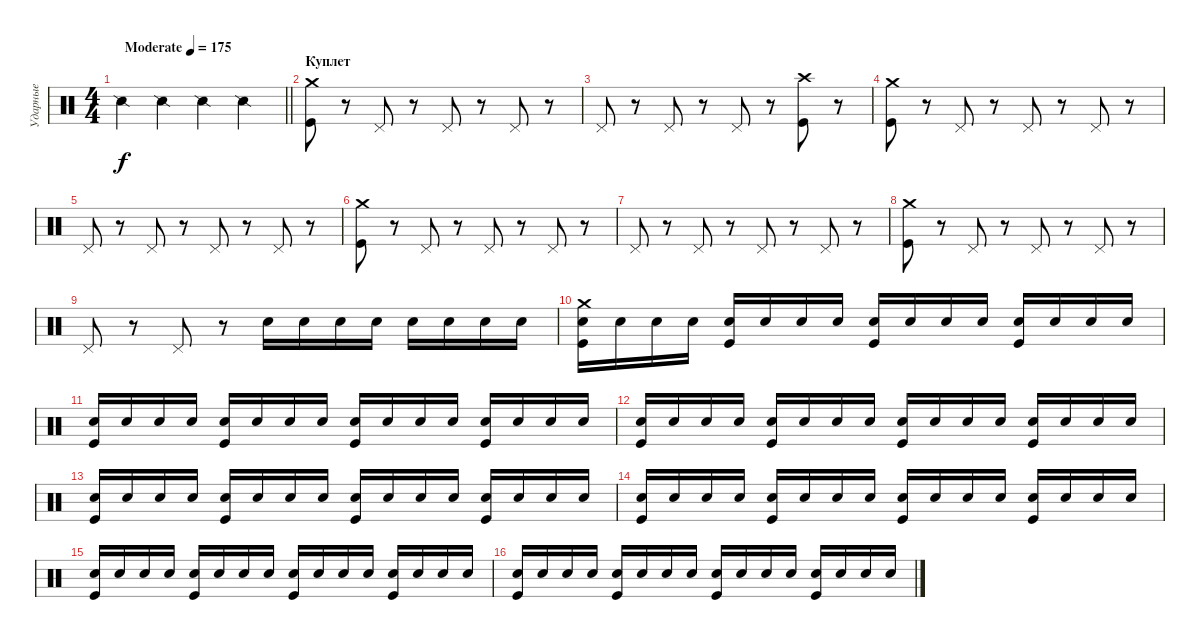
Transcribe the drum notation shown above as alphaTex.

\track ("Ударные" "Ударные") {instrument percussion}
\staff {score}
\articulation defaults
\ts (4 4)
\tempo (175 "Moderate")
\clef neutral
\barLineRight lightlight
\ks c "Snare (side stick) 2".4{dy f} "Snare (side stick) 2".4 "Snare (side stick) 2".4 "Snare (side stick) 2".4
|
\section ("" "Куплет")
("Crash medium (hit)" "Kick (hit)").8 r.8 "Pedal Hi-Hat (hit)".8 r.8 "Pedal Hi-Hat (hit)".8 r.8 "Pedal Hi-Hat (hit)".8 r.8 |
"Pedal Hi-Hat (hit)".8 r.8 "Pedal Hi-Hat (hit)".8 r.8 "Pedal Hi-Hat (hit)".8 r.8 ("Crash high (hit)" "Kick (hit)").8 r.8 |
("Crash medium (hit)" "Kick (hit)").8 r.8 "Pedal Hi-Hat (hit)".8 r.8 "Pedal Hi-Hat (hit)".8 r.8 "Pedal Hi-Hat (hit)".8 r.8 |
"Pedal Hi-Hat (hit)".8 r.8 "Pedal Hi-Hat (hit)".8 r.8 "Pedal Hi-Hat (hit)".8 r.8 "Pedal Hi-Hat (hit)".8 r.8 |
("Crash medium (hit)" "Kick (hit)").8 r.8 "Pedal Hi-Hat (hit)".8 r.8 "Pedal Hi-Hat (hit)".8 r.8 "Pedal Hi-Hat (hit)".8 r.8 |
"Pedal Hi-Hat (hit)".8 r.8 "Pedal Hi-Hat (hit)".8 r.8 "Pedal Hi-Hat (hit)".8 r.8 "Pedal Hi-Hat (hit)".8 r.8 |
("Crash medium (hit)" "Kick (hit)").8 r.8 "Pedal Hi-Hat (hit)".8 r.8 "Pedal Hi-Hat (hit)".8 r.8 "Pedal Hi-Hat (hit)".8 r.8 |
"Pedal Hi-Hat (hit)".8 r.8 "Pedal Hi-Hat (hit)".8 r.8 "Electric Snare (hit)".16 "Electric Snare (hit)".16 "Electric Snare (hit)".16 "Electric Snare (hit)".16 "Electric Snare (hit)".16 "Electric Snare (hit)".16 "Electric Snare (hit)".16 "Electric Snare (hit)".16 |
("Crash medium (hit)" "Electric Snare (hit)" "Kick (hit)").16 "Electric Snare (hit)".16 "Electric Snare (hit)".16 "Electric Snare (hit)".16 ("Electric Snare (hit)" "Kick (hit)").16 "Electric Snare (hit)".16 "Electric Snare (hit)".16 "Electric Snare (hit)".16 ("Electric Snare (hit)" "Kick (hit)").16 "Electric Snare (hit)".16 "Electric Snare (hit)".16 "Electric Snare (hit)".16 ("Electric Snare (hit)" "Kick (hit)").16 "Electric Snare (hit)".16 "Electric Snare (hit)".16 "Electric Snare (hit)".16 |
("Electric Snare (hit)" "Kick (hit)").16 "Electric Snare (hit)".16 "Electric Snare (hit)".16 "Electric Snare (hit)".16 ("Electric Snare (hit)" "Kick (hit)").16 "Electric Snare (hit)".16 "Electric Snare (hit)".16 "Electric Snare (hit)".16 ("Electric Snare (hit)" "Kick (hit)").16 "Electric Snare (hit)".16 "Electric Snare (hit)".16 "Electric Snare (hit)".16 ("Electric Snare (hit)" "Kick (hit)").16 "Electric Snare (hit)".16 "Electric Snare (hit)".16 "Electric Snare (hit)".16 |
("Electric Snare (hit)" "Kick (hit)").16 "Electric Snare (hit)".16 "Electric Snare (hit)".16 "Electric Snare (hit)".16 ("Electric Snare (hit)" "Kick (hit)").16 "Electric Snare (hit)".16 "Electric Snare (hit)".16 "Electric Snare (hit)".16 ("Electric Snare (hit)" "Kick (hit)").16 "Electric Snare (hit)".16 "Electric Snare (hit)".16 "Electric Snare (hit)".16 ("Electric Snare (hit)" "Kick (hit)").16 "Electric Snare (hit)".16 "Electric Snare (hit)".16 "Electric Snare (hit)".16 |
("Electric Snare (hit)" "Kick (hit)").16 "Electric Snare (hit)".16 "Electric Snare (hit)".16 "Electric Snare (hit)".16 ("Electric Snare (hit)" "Kick (hit)").16 "Electric Snare (hit)".16 "Electric Snare (hit)".16 "Electric Snare (hit)".16 ("Electric Snare (hit)" "Kick (hit)").16 "Electric Snare (hit)".16 "Electric Snare (hit)".16 "Electric Snare (hit)".16 ("Electric Snare (hit)" "Kick (hit)").16 "Electric Snare (hit)".16 "Electric Snare (hit)".16 "Electric Snare (hit)".16 |
("Electric Snare (hit)" "Kick (hit)").16 "Electric Snare (hit)".16 "Electric Snare (hit)".16 "Electric Snare (hit)".16 ("Electric Snare (hit)" "Kick (hit)").16 "Electric Snare (hit)".16 "Electric Snare (hit)".16 "Electric Snare (hit)".16 ("Electric Snare (hit)" "Kick (hit)").16 "Electric Snare (hit)".16 "Electric Snare (hit)".16 "Electric Snare (hit)".16 ("Electric Snare (hit)" "Kick (hit)").16 "Electric Snare (hit)".16 "Electric Snare (hit)".16 "Electric Snare (hit)".16 |
("Electric Snare (hit)" "Kick (hit)").16 "Electric Snare (hit)".16 "Electric Snare (hit)".16 "Electric Snare (hit)".16 ("Electric Snare (hit)" "Kick (hit)").16 "Electric Snare (hit)".16 "Electric Snare (hit)".16 "Electric Snare (hit)".16 ("Electric Snare (hit)" "Kick (hit)").16 "Electric Snare (hit)".16 "Electric Snare (hit)".16 "Electric Snare (hit)".16 ("Electric Snare (hit)" "Kick (hit)").16 "Electric Snare (hit)".16 "Electric Snare (hit)".16 "Electric Snare (hit)".16 |
("Electric Snare (hit)" "Kick (hit)").16 "Electric Snare (hit)".16 "Electric Snare (hit)".16 "Electric Snare (hit)".16 ("Electric Snare (hit)" "Kick (hit)").16 "Electric Snare (hit)".16 "Electric Snare (hit)".16 "Electric Snare (hit)".16 ("Electric Snare (hit)" "Kick (hit)").16 "Electric Snare (hit)".16 "Electric Snare (hit)".16 "Electric Snare (hit)".16 ("Electric Snare (hit)" "Kick (hit)").16 "Electric Snare (hit)".16 "Electric Snare (hit)".16 "Electric Snare (hit)".16
